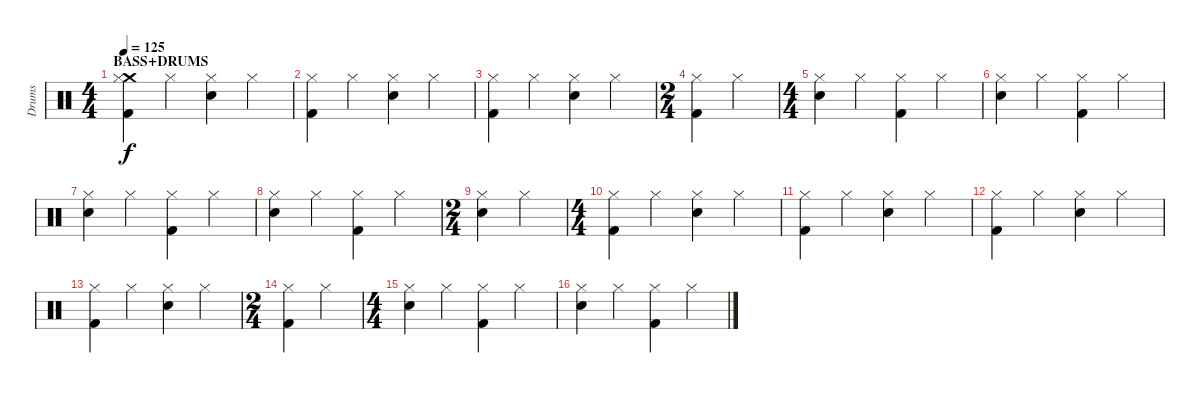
\track ("Drums" "Drums") {instrument percussion}
\staff {score}
\articulation defaults
\ts (4 4)
\section ("" "BASS+DRUMS")
\tempo 125
\clef neutral
\ks c
("Crash medium (hit)" "Hi-Hat (closed)" "Kick (hit) 2").4{dy f} "Hi-Hat (closed)".4 ("Hi-Hat (closed)" "Electric Snare (hit)").4 "Hi-Hat (closed)".4 |
("Hi-Hat (closed)" "Kick (hit) 2").4 "Hi-Hat (closed)".4 ("Hi-Hat (closed)" "Electric Snare (hit)").4 "Hi-Hat (closed)".4 |
("Hi-Hat (closed)" "Kick (hit) 2").4 "Hi-Hat (closed)".4 ("Hi-Hat (closed)" "Electric Snare (hit)").4 "Hi-Hat (closed)".4 |
\ts (2 4)
("Hi-Hat (closed)" "Kick (hit) 2").4 "Hi-Hat (closed)".4 |
\ts (4 4)
("Hi-Hat (closed)" "Electric Snare (hit)").4 "Hi-Hat (closed)".4 ("Hi-Hat (closed)" "Kick (hit) 2").4 "Hi-Hat (closed)".4 |
("Hi-Hat (closed)" "Electric Snare (hit)").4 "Hi-Hat (closed)".4 ("Hi-Hat (closed)" "Kick (hit) 2").4 "Hi-Hat (closed)".4 |
("Hi-Hat (closed)" "Electric Snare (hit)").4 "Hi-Hat (closed)".4 ("Hi-Hat (closed)" "Kick (hit) 2").4 "Hi-Hat (closed)".4 |
("Hi-Hat (closed)" "Electric Snare (hit)").4 "Hi-Hat (closed)".4 ("Hi-Hat (closed)" "Kick (hit) 2").4 "Hi-Hat (closed)".4 |
\ts (2 4)
("Hi-Hat (closed)" "Electric Snare (hit)").4 "Hi-Hat (closed)".4 |
\ts (4 4)
("Hi-Hat (closed)" "Kick (hit) 2").4 "Hi-Hat (closed)".4 ("Hi-Hat (closed)" "Electric Snare (hit)").4 "Hi-Hat (closed)".4 |
("Hi-Hat (closed)" "Kick (hit) 2").4 "Hi-Hat (closed)".4 ("Hi-Hat (closed)" "Electric Snare (hit)").4 "Hi-Hat (closed)".4 |
("Hi-Hat (closed)" "Kick (hit) 2").4 "Hi-Hat (closed)".4 ("Hi-Hat (closed)" "Electric Snare (hit)").4 "Hi-Hat (closed)".4 |
("Hi-Hat (closed)" "Kick (hit) 2").4 "Hi-Hat (closed)".4 ("Hi-Hat (closed)" "Electric Snare (hit)").4 "Hi-Hat (closed)".4 |
\ts (2 4)
("Hi-Hat (closed)" "Kick (hit) 2").4 "Hi-Hat (closed)".4 |
\ts (4 4)
("Hi-Hat (closed)" "Electric Snare (hit)").4 "Hi-Hat (closed)".4 ("Hi-Hat (closed)" "Kick (hit) 2").4 "Hi-Hat (closed)".4 |
("Hi-Hat (closed)" "Electric Snare (hit)").4 "Hi-Hat (closed)".4 ("Hi-Hat (closed)" "Kick (hit) 2").4 "Hi-Hat (closed)".4
